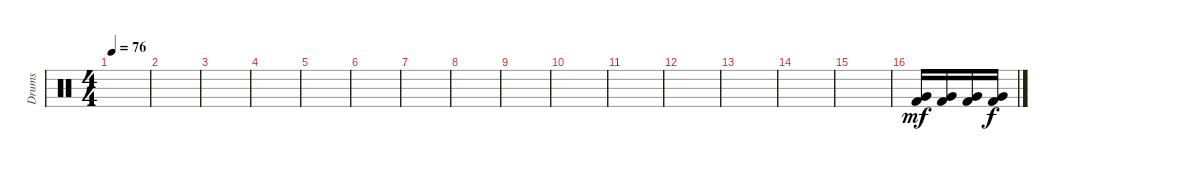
\track ("Drums" "Drums") {instrument percussion}
\staff {score}
\articulation defaults
\ts (4 4)
\tempo 76
\clef neutral
\ks c
|
|
|
|
|
|
|
|
|
|
|
|
|
|
|
("Very Low Tom (hit)" "Kick (hit) 2").16{dy mf} ("Very Low Tom (hit)" "Kick (hit) 2").16 ("Very Low Tom (hit)" "Kick (hit) 2").16 ("Very Low Tom (hit)" "Kick (hit) 2").16{dy f}
